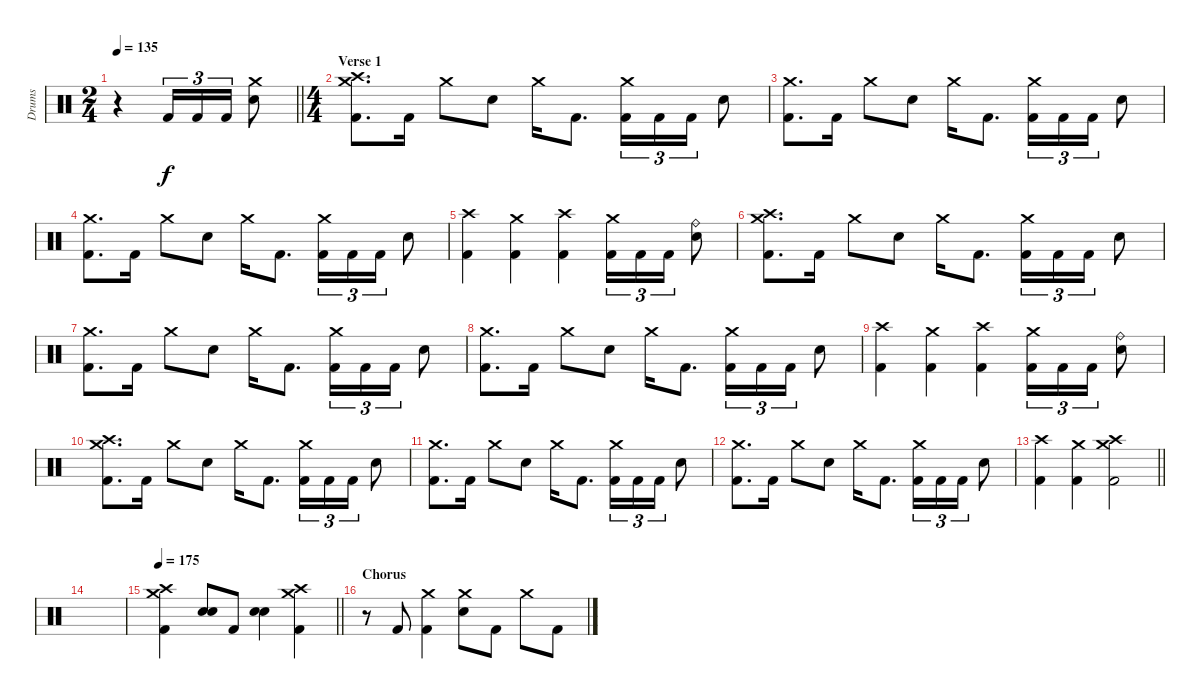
\track ("Drums" "Drums") {instrument percussion}
\staff {score}
\articulation defaults
\ts (2 4)
\tempo 135
\clef neutral
\barLineRight lightlight
\ks c
r.4{dy f} "Kick (hit) 2".16{tu (3 2)} "Kick (hit) 2".16{tu (3 2)} "Kick (hit) 2".16{tu (3 2)} ("Crash medium (hit)" "Electric Snare (hit)").8 |
\ts (4 4)
\section ("" "Verse 1")
("Crash high (hit)" "Crash medium (hit)" "Kick (hit) 2").8{d} "Kick (hit) 2".16 "Crash medium (hit)".8 "Electric Snare (hit)".8 "Crash medium (hit)".16 "Kick (hit) 2".8{d} ("Crash medium (hit)" "Kick (hit) 2").16{tu (3 2)} "Kick (hit) 2".16{tu (3 2)} "Kick (hit) 2".16{tu (3 2)} "Electric Snare (hit)".8 |
("Crash medium (hit)" "Kick (hit) 2").8{d} "Kick (hit) 2".16 "Crash medium (hit)".8 "Electric Snare (hit)".8 "Crash medium (hit)".16 "Kick (hit) 2".8{d} ("Crash medium (hit)" "Kick (hit) 2").16{tu (3 2)} "Kick (hit) 2".16{tu (3 2)} "Kick (hit) 2".16{tu (3 2)} "Electric Snare (hit)".8 |
("Crash medium (hit)" "Kick (hit) 2").8{d} "Kick (hit) 2".16 "Crash medium (hit)".8 "Electric Snare (hit)".8 "Crash medium (hit)".16 "Kick (hit) 2".8{d} ("Crash medium (hit)" "Kick (hit) 2").16{tu (3 2)} "Kick (hit) 2".16{tu (3 2)} "Kick (hit) 2".16{tu (3 2)} "Electric Snare (hit)".8 |
("Crash high (hit)" "Kick (hit) 2").4 ("Crash medium (hit)" "Kick (hit) 2").4 ("Crash high (hit)" "Kick (hit) 2").4 ("Crash medium (hit)" "Kick (hit) 2").16{tu (3 2)} "Kick (hit) 2".16{tu (3 2)} "Kick (hit) 2".16{tu (3 2)} ("Ride (bell)" "Electric Snare (hit)").8 |
("Crash high (hit)" "Crash medium (hit)" "Kick (hit) 2").8{d} "Kick (hit) 2".16 "Crash medium (hit)".8 "Electric Snare (hit)".8 "Crash medium (hit)".16 "Kick (hit) 2".8{d} ("Crash medium (hit)" "Kick (hit) 2").16{tu (3 2)} "Kick (hit) 2".16{tu (3 2)} "Kick (hit) 2".16{tu (3 2)} "Electric Snare (hit)".8 |
("Crash medium (hit)" "Kick (hit) 2").8{d} "Kick (hit) 2".16 "Crash medium (hit)".8 "Electric Snare (hit)".8 "Crash medium (hit)".16 "Kick (hit) 2".8{d} ("Crash medium (hit)" "Kick (hit) 2").16{tu (3 2)} "Kick (hit) 2".16{tu (3 2)} "Kick (hit) 2".16{tu (3 2)} "Electric Snare (hit)".8 |
("Crash medium (hit)" "Kick (hit) 2").8{d} "Kick (hit) 2".16 "Crash medium (hit)".8 "Electric Snare (hit)".8 "Crash medium (hit)".16 "Kick (hit) 2".8{d} ("Crash medium (hit)" "Kick (hit) 2").16{tu (3 2)} "Kick (hit) 2".16{tu (3 2)} "Kick (hit) 2".16{tu (3 2)} "Electric Snare (hit)".8 |
("Crash high (hit)" "Kick (hit) 2").4 ("Crash medium (hit)" "Kick (hit) 2").4 ("Crash high (hit)" "Kick (hit) 2").4 ("Crash medium (hit)" "Kick (hit) 2").16{tu (3 2)} "Kick (hit) 2".16{tu (3 2)} "Kick (hit) 2".16{tu (3 2)} ("Ride (bell)" "Electric Snare (hit)").8 |
("Crash high (hit)" "Crash medium (hit)" "Kick (hit) 2").8{d} "Kick (hit) 2".16 "Crash medium (hit)".8 "Electric Snare (hit)".8 "Crash medium (hit)".16 "Kick (hit) 2".8{d} ("Crash medium (hit)" "Kick (hit) 2").16{tu (3 2)} "Kick (hit) 2".16{tu (3 2)} "Kick (hit) 2".16{tu (3 2)} "Electric Snare (hit)".8 |
("Crash medium (hit)" "Kick (hit) 2").8{d} "Kick (hit) 2".16 "Crash medium (hit)".8 "Electric Snare (hit)".8 "Crash medium (hit)".16 "Kick (hit) 2".8{d} ("Crash medium (hit)" "Kick (hit) 2").16{tu (3 2)} "Kick (hit) 2".16{tu (3 2)} "Kick (hit) 2".16{tu (3 2)} "Electric Snare (hit)".8 |
("Crash medium (hit)" "Kick (hit) 2").8{d} "Kick (hit) 2".16 "Crash medium (hit)".8 "Electric Snare (hit)".8 "Crash medium (hit)".16 "Kick (hit) 2".8{d} ("Crash medium (hit)" "Kick (hit) 2").16{tu (3 2)} "Kick (hit) 2".16{tu (3 2)} "Kick (hit) 2".16{tu (3 2)} "Electric Snare (hit)".8 |
\barLineRight lightlight
("Crash high (hit)" "Kick (hit) 2").4 ("Crash medium (hit)" "Kick (hit) 2").4 ("Crash high (hit)" "Crash medium (hit)" "Kick (hit) 2").2 |
\section ("" "")
|
\tempo 175
\barLineRight lightlight
("Crash high (hit)" "Crash medium (hit)" "Kick (hit) 2").4 ("Electric Snare (hit)" "Electric Snare (hit)").8{bd 240} "Kick (hit) 2".8 ("Electric Snare (hit)" "Electric Snare (hit)").4{bd 240} ("Crash high (hit)" "Crash medium (hit)" "Kick (hit) 2").4 |
\section ("" "Chorus")
r.8 "Kick (hit) 2".8 ("Crash medium (hit)" "Kick (hit) 2").4 ("Crash medium (hit)" "Electric Snare (hit)").8 "Kick (hit) 2".8 "Crash medium (hit)".8 "Kick (hit) 2".8
